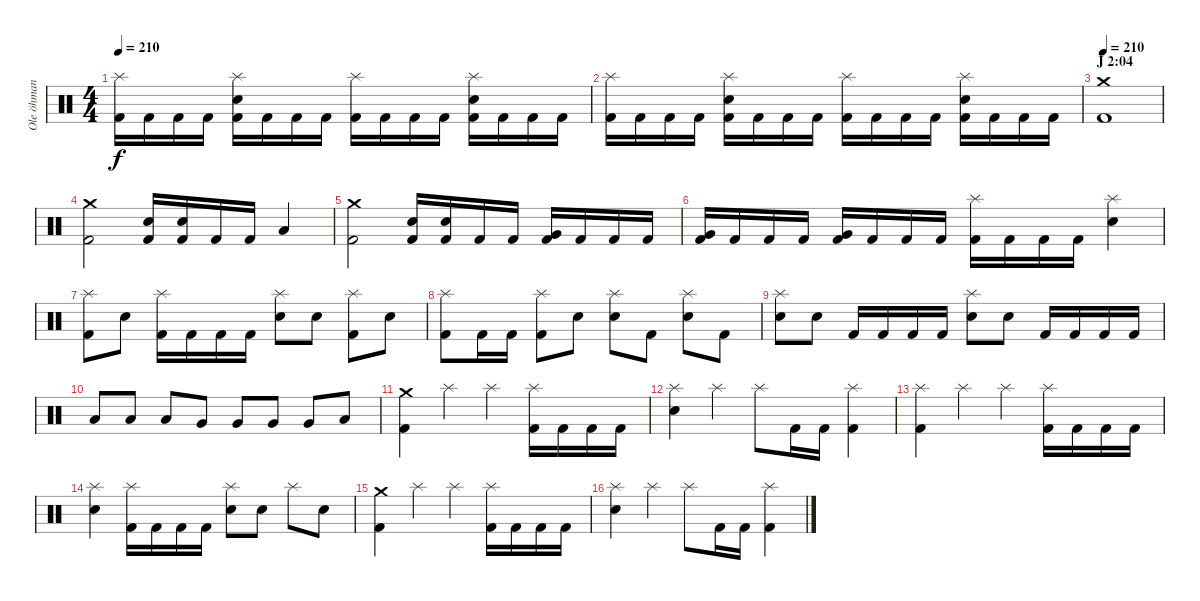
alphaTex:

\track ("Ole öhman" "Ole öhman") {instrument percussion}
\staff {score}
\articulation defaults
\ts (4 4)
\tempo 210
\clef neutral
\ks c
("Splash (hit)" "Kick (hit) 2").16{dy f} "Kick (hit) 2".16 "Kick (hit) 2".16 "Kick (hit) 2".16 ("Splash (hit)" "Electric Snare (hit)" "Kick (hit) 2").16 "Kick (hit) 2".16 "Kick (hit) 2".16 "Kick (hit) 2".16 ("Splash (hit)" "Kick (hit) 2").16 "Kick (hit) 2".16 "Kick (hit) 2".16 "Kick (hit) 2".16 ("Splash (hit)" "Electric Snare (hit)" "Kick (hit) 2").16 "Kick (hit) 2".16 "Kick (hit) 2".16 "Kick (hit) 2".16 |
("Splash (hit)" "Kick (hit) 2").16 "Kick (hit) 2".16 "Kick (hit) 2".16 "Kick (hit) 2".16 ("Splash (hit)" "Electric Snare (hit)" "Kick (hit) 2").16 "Kick (hit) 2".16 "Kick (hit) 2".16 "Kick (hit) 2".16 ("Splash (hit)" "Kick (hit) 2").16 "Kick (hit) 2".16 "Kick (hit) 2".16 "Kick (hit) 2".16 ("Splash (hit)" "Electric Snare (hit)" "Kick (hit) 2").16 "Kick (hit) 2".16 "Kick (hit) 2".16 "Kick (hit) 2".16 |
\section ("" "J 2:04")
\tempo 210
("Crash medium (hit)" "Kick (hit) 2").1 |
("Crash medium (hit)" "Kick (hit) 2").2 ("Electric Snare (hit)" "Kick (hit) 2").16 ("Electric Snare (hit)" "Kick (hit) 2").16 "Kick (hit) 2".16 "Kick (hit) 2".16 "Low Floor Tom (hit)".4 |
("Crash medium (hit)" "Kick (hit) 2").2 ("Electric Snare (hit)" "Kick (hit) 2").16 ("Electric Snare (hit)" "Kick (hit) 2").16 "Kick (hit) 2".16 "Kick (hit) 2".16 ("Very Low Tom (hit)" "Kick (hit) 2").16 "Kick (hit) 2".16 "Kick (hit) 2".16 "Kick (hit) 2".16 |
("Very Low Tom (hit)" "Kick (hit) 2").16 "Kick (hit) 2".16 "Kick (hit) 2".16 "Kick (hit) 2".16 ("Very Low Tom (hit)" "Kick (hit) 2").16 "Kick (hit) 2".16 "Kick (hit) 2".16 "Kick (hit) 2".16 ("Splash (hit)" "Kick (hit) 2").16 "Kick (hit) 2".16 "Kick (hit) 2".16 "Kick (hit) 2".16 ("Splash (hit)" "Electric Snare (hit)").4 |
("Splash (hit)" "Kick (hit) 2").8 "Electric Snare (hit)".8 ("Splash (hit)" "Kick (hit) 2").16 "Kick (hit) 2".16 "Kick (hit) 2".16 "Kick (hit) 2".16 ("Splash (hit)" "Electric Snare (hit)").8 "Electric Snare (hit)".8 ("Splash (hit)" "Kick (hit) 2").8 "Electric Snare (hit)".8 |
("Splash (hit)" "Kick (hit) 2").8 "Kick (hit) 2".16 "Kick (hit) 2".16 ("Splash (hit)" "Kick (hit) 2").8 "Electric Snare (hit)".8 ("Splash (hit)" "Electric Snare (hit)").8 "Kick (hit) 2".8 ("Splash (hit)" "Electric Snare (hit)").8 "Kick (hit) 2".8 |
("Splash (hit)" "Electric Snare (hit)").8 "Electric Snare (hit)".8 "Kick (hit) 2".16 "Kick (hit) 2".16 "Kick (hit) 2".16 "Kick (hit) 2".16 ("Splash (hit)" "Electric Snare (hit)").8 "Electric Snare (hit)".8 "Kick (hit) 2".16 "Kick (hit) 2".16 "Kick (hit) 2".16 "Kick (hit) 2".16 |
"Low Tom (hit)".8 "Low Tom (hit)".8 "Low Tom (hit)".8 "Very Low Tom (hit)".8 "Very Low Tom (hit)".8 "Very Low Tom (hit)".8 "Very Low Tom (hit)".8 "Low Floor Tom (hit)".8 |
("Crash medium (hit)" "Kick (hit) 2").4 "Splash (hit)".4 "Splash (hit)".4 ("Splash (hit)" "Kick (hit) 2").16 "Kick (hit) 2".16 "Kick (hit) 2".16 "Kick (hit) 2".16 |
("Splash (hit)" "Electric Snare (hit)").4 "Splash (hit)".4 "Splash (hit)".8 "Kick (hit) 2".16 "Kick (hit) 2".16 ("Splash (hit)" "Kick (hit) 2").4 |
("Splash (hit)" "Kick (hit) 2").4 "Splash (hit)".4 "Splash (hit)".4 ("Splash (hit)" "Kick (hit) 2").16 "Kick (hit) 2".16 "Kick (hit) 2".16 "Kick (hit) 2".16 |
("Splash (hit)" "Electric Snare (hit)").4 ("Splash (hit)" "Kick (hit) 2").16 "Kick (hit) 2".16 "Kick (hit) 2".16 "Kick (hit) 2".16 ("Splash (hit)" "Electric Snare (hit)").8 "Electric Snare (hit)".8 "Splash (hit)".8 "Electric Snare (hit)".8 |
("Crash medium (hit)" "Kick (hit) 2").4 "Splash (hit)".4 "Splash (hit)".4 ("Splash (hit)" "Kick (hit) 2").16 "Kick (hit) 2".16 "Kick (hit) 2".16 "Kick (hit) 2".16 |
("Splash (hit)" "Electric Snare (hit)").4 "Splash (hit)".4 "Splash (hit)".8 "Kick (hit) 2".16 "Kick (hit) 2".16 ("Splash (hit)" "Kick (hit) 2").4
